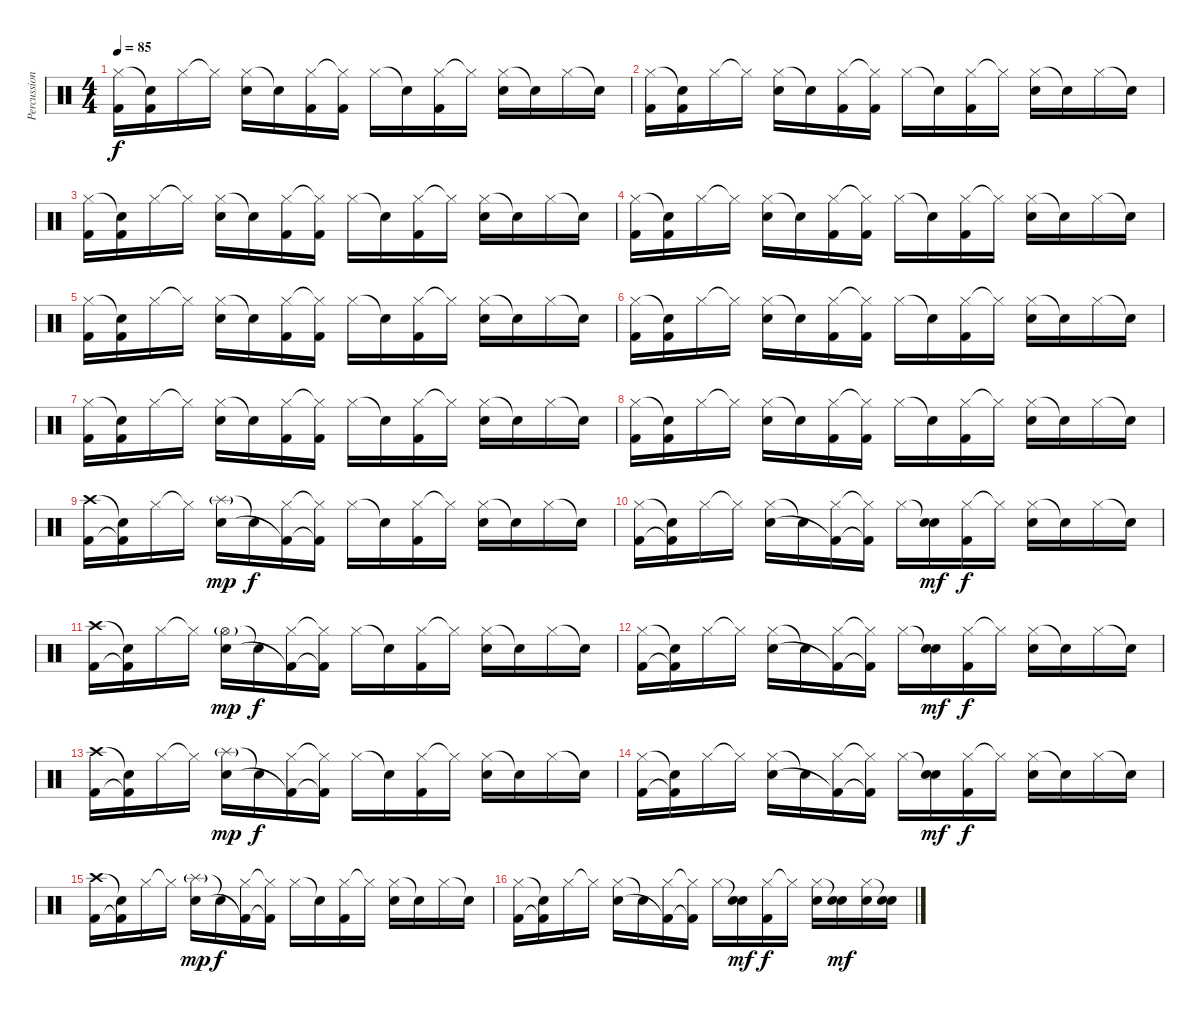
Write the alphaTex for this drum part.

\track ("Percussion" "Percussion") {instrument percussion}
\staff {score}
\articulation defaults
\ts (4 4)
\tempo 85
\clef neutral
\ks c
("Hi-Hat (closed)" "Kick (hit) 2").16{dy f} ("Snare (hit)"{t} "Kick (hit) 2").16 "Hi-Hat (closed)".16 "Hi-Hat (closed)"{t}.16 ("Hi-Hat (closed)" "Snare (hit) 2").16 "Snare (hit)"{t}.16 ("Hi-Hat (closed)" "Kick (hit) 2").16 ("Hi-Hat (closed)"{t} "Kick (hit) 2").16 "Hi-Hat (closed)".16 "Snare (hit)"{t}.16 ("Hi-Hat (closed)" "Kick (hit) 2").16 "Hi-Hat (closed)"{t}.16 ("Hi-Hat (closed)" "Snare (hit) 2").16 "Snare (hit)"{t}.16 "Hi-Hat (closed)".16 "Snare (hit)"{t}.16 |
("Hi-Hat (closed)" "Kick (hit) 2").16 ("Snare (hit)"{t} "Kick (hit) 2").16 "Hi-Hat (closed)".16 "Hi-Hat (closed)"{t}.16 ("Hi-Hat (closed)" "Snare (hit) 2").16 "Snare (hit)"{t}.16 ("Hi-Hat (closed)" "Kick (hit) 2").16 ("Hi-Hat (closed)"{t} "Kick (hit) 2").16 "Hi-Hat (closed)".16 "Snare (hit)"{t}.16 ("Hi-Hat (closed)" "Kick (hit) 2").16 "Hi-Hat (closed)"{t}.16 ("Hi-Hat (closed)" "Snare (hit) 2").16 "Snare (hit)"{t}.16 "Hi-Hat (closed)".16 "Snare (hit)"{t}.16 |
("Hi-Hat (closed)" "Kick (hit) 2").16 ("Snare (hit)"{t} "Kick (hit) 2").16 "Hi-Hat (closed)".16 "Hi-Hat (closed)"{t}.16 ("Hi-Hat (closed)" "Snare (hit) 2").16 "Snare (hit)"{t}.16 ("Hi-Hat (closed)" "Kick (hit) 2").16 ("Hi-Hat (closed)"{t} "Kick (hit) 2").16 "Hi-Hat (closed)".16 "Snare (hit)"{t}.16 ("Hi-Hat (closed)" "Kick (hit) 2").16 "Hi-Hat (closed)"{t}.16 ("Hi-Hat (closed)" "Snare (hit) 2").16 "Snare (hit)"{t}.16 "Hi-Hat (closed)".16 "Snare (hit)"{t}.16 |
("Hi-Hat (closed)" "Kick (hit) 2").16 ("Snare (hit)"{t} "Kick (hit) 2").16 "Hi-Hat (closed)".16 "Hi-Hat (closed)"{t}.16 ("Hi-Hat (closed)" "Snare (hit) 2").16 "Snare (hit)"{t}.16 ("Hi-Hat (closed)" "Kick (hit) 2").16 ("Hi-Hat (closed)"{t} "Kick (hit) 2").16 "Hi-Hat (closed)".16 "Snare (hit)"{t}.16 ("Hi-Hat (closed)" "Kick (hit) 2").16 "Hi-Hat (closed)"{t}.16 ("Hi-Hat (closed)" "Snare (hit) 2").16 "Snare (hit)"{t}.16 "Hi-Hat (closed)".16 "Snare (hit)"{t}.16 |
("Hi-Hat (closed)" "Kick (hit) 2").16 ("Snare (hit)"{t} "Kick (hit) 2").16 "Hi-Hat (closed)".16 "Hi-Hat (closed)"{t}.16 ("Hi-Hat (closed)" "Snare (hit) 2").16 "Snare (hit)"{t}.16 ("Hi-Hat (closed)" "Kick (hit) 2").16 ("Hi-Hat (closed)"{t} "Kick (hit) 2").16 "Hi-Hat (closed)".16 "Snare (hit)"{t}.16 ("Hi-Hat (closed)" "Kick (hit) 2").16 "Hi-Hat (closed)"{t}.16 ("Hi-Hat (closed)" "Snare (hit) 2").16 "Snare (hit)"{t}.16 "Hi-Hat (closed)".16 "Snare (hit)"{t}.16 |
("Hi-Hat (closed)" "Kick (hit) 2").16 ("Snare (hit)"{t} "Kick (hit) 2").16 "Hi-Hat (closed)".16 "Hi-Hat (closed)"{t}.16 ("Hi-Hat (closed)" "Snare (hit) 2").16 "Snare (hit)"{t}.16 ("Hi-Hat (closed)" "Kick (hit) 2").16 ("Hi-Hat (closed)"{t} "Kick (hit) 2").16 "Hi-Hat (closed)".16 "Snare (hit)"{t}.16 ("Hi-Hat (closed)" "Kick (hit) 2").16 "Hi-Hat (closed)"{t}.16 ("Hi-Hat (closed)" "Snare (hit) 2").16 "Snare (hit)"{t}.16 "Hi-Hat (closed)".16 "Snare (hit)"{t}.16 |
("Hi-Hat (closed)" "Kick (hit) 2").16 ("Snare (hit)"{t} "Kick (hit) 2").16 "Hi-Hat (closed)".16 "Hi-Hat (closed)"{t}.16 ("Hi-Hat (closed)" "Snare (hit) 2").16 "Snare (hit)"{t}.16 ("Hi-Hat (closed)" "Kick (hit) 2").16 ("Hi-Hat (closed)"{t} "Kick (hit) 2").16 "Hi-Hat (closed)".16 "Snare (hit)"{t}.16 ("Hi-Hat (closed)" "Kick (hit) 2").16 "Hi-Hat (closed)"{t}.16 ("Hi-Hat (closed)" "Snare (hit) 2").16 "Snare (hit)"{t}.16 "Hi-Hat (closed)".16 "Snare (hit)"{t}.16 |
("Hi-Hat (closed)" "Kick (hit) 2").16 ("Snare (hit)"{t} "Kick (hit) 2").16 "Hi-Hat (closed)".16 "Hi-Hat (closed)"{t}.16 ("Hi-Hat (closed)" "Snare (hit) 2").16 "Snare (hit)"{t}.16 ("Hi-Hat (closed)" "Kick (hit) 2").16 ("Hi-Hat (closed)"{t} "Kick (hit) 2").16 "Hi-Hat (closed)".16 "Snare (hit)"{t}.16 ("Hi-Hat (closed)" "Kick (hit) 2").16 "Hi-Hat (closed)"{t}.16 ("Hi-Hat (closed)" "Snare (hit) 2").16 "Snare (hit)"{t}.16 "Hi-Hat (closed)".16 "Snare (hit)"{t}.16 |
("Crash high (hit)" "Kick (hit) 2").16 ("Snare (hit)"{t} "Kick (hit) 2"{t}).16 "Hi-Hat (closed)".16 "Hi-Hat (closed)"{t}.16 ("Splash (hit)"{g} "Snare (hit) 2").16{dy mp} "Snare (hit)"{t}.16{dy f} ("Hi-Hat (closed)" "Kick (hit) 2"{t}).16 ("Hi-Hat (closed)"{t} "Kick (hit) 2"{t}).16 "Hi-Hat (closed)".16 "Snare (hit)"{t}.16 ("Hi-Hat (closed)" "Kick (hit) 2").16 "Hi-Hat (closed)"{t}.16 ("Hi-Hat (closed)" "Snare (hit) 2").16 "Snare (hit)"{t}.16 "Hi-Hat (closed)".16 "Snare (hit)"{t}.16 |
("Hi-Hat (closed)" "Kick (hit) 2").16 ("Snare (hit)"{t} "Kick (hit) 2"{t}).16 "Hi-Hat (closed)".16 "Hi-Hat (closed)"{t}.16 ("Hi-Hat (closed)" "Snare (hit) 2").16 "Snare (hit)"{t}.16 ("Hi-Hat (closed)" "Kick (hit) 2"{t}).16 ("Hi-Hat (closed)"{t} "Kick (hit) 2"{t}).16 "Hi-Hat (closed)".16 ("Snare (hit)"{t} "Snare (hit) 2").16{dy mf} ("Hi-Hat (closed)" "Kick (hit) 2").16{dy f} "Hi-Hat (closed)"{t}.16 ("Hi-Hat (closed)" "Snare (hit) 2").16 "Snare (hit)"{t}.16 "Hi-Hat (closed)".16 "Snare (hit)"{t}.16 |
("Crash high (hit)" "Kick (hit) 2").16 ("Snare (hit)"{t} "Kick (hit) 2"{t}).16 "Hi-Hat (closed)".16 "Hi-Hat (closed)"{t}.16 ("Hi-Hat (open)"{g} "Snare (hit) 2").16{dy mp} "Snare (hit)"{t}.16{dy f} ("Hi-Hat (closed)" "Kick (hit) 2"{t}).16 ("Hi-Hat (closed)"{t} "Kick (hit) 2"{t}).16 "Hi-Hat (closed)".16 "Snare (hit)"{t}.16 ("Hi-Hat (closed)" "Kick (hit) 2").16 "Hi-Hat (closed)"{t}.16 ("Hi-Hat (closed)" "Snare (hit) 2").16 "Snare (hit)"{t}.16 "Hi-Hat (closed)".16 "Snare (hit)"{t}.16 |
("Hi-Hat (closed)" "Kick (hit) 2").16 ("Snare (hit)"{t} "Kick (hit) 2"{t}).16 "Hi-Hat (closed)".16 "Hi-Hat (closed)"{t}.16 ("Hi-Hat (closed)" "Snare (hit) 2").16 "Snare (hit)"{t}.16 ("Hi-Hat (closed)" "Kick (hit) 2"{t}).16 ("Hi-Hat (closed)"{t} "Kick (hit) 2"{t}).16 "Hi-Hat (closed)".16 ("Snare (hit)"{t} "Snare (hit) 2").16{dy mf} ("Hi-Hat (closed)" "Kick (hit) 2").16{dy f} "Hi-Hat (closed)"{t}.16 ("Hi-Hat (closed)" "Snare (hit) 2").16 "Snare (hit)"{t}.16 "Hi-Hat (closed)".16 "Snare (hit)"{t}.16 |
("Crash high (hit)" "Kick (hit) 2").16 ("Snare (hit)"{t} "Kick (hit) 2"{t}).16 "Hi-Hat (closed)".16 "Hi-Hat (closed)"{t}.16 ("Splash (hit)"{g} "Snare (hit) 2").16{dy mp} "Snare (hit)"{t}.16{dy f} ("Hi-Hat (closed)" "Kick (hit) 2"{t}).16 ("Hi-Hat (closed)"{t} "Kick (hit) 2"{t}).16 "Hi-Hat (closed)".16 "Snare (hit)"{t}.16 ("Hi-Hat (closed)" "Kick (hit) 2").16 "Hi-Hat (closed)"{t}.16 ("Hi-Hat (closed)" "Snare (hit) 2").16 "Snare (hit)"{t}.16 "Hi-Hat (closed)".16 "Snare (hit)"{t}.16 |
("Hi-Hat (closed)" "Kick (hit) 2").16 ("Snare (hit)"{t} "Kick (hit) 2"{t}).16 "Hi-Hat (closed)".16 "Hi-Hat (closed)"{t}.16 ("Hi-Hat (closed)" "Snare (hit) 2").16 "Snare (hit)"{t}.16 ("Hi-Hat (closed)" "Kick (hit) 2"{t}).16 ("Hi-Hat (closed)"{t} "Kick (hit) 2"{t}).16 "Hi-Hat (closed)".16 ("Snare (hit)"{t} "Snare (hit) 2").16{dy mf} ("Hi-Hat (closed)" "Kick (hit) 2").16{dy f} "Hi-Hat (closed)"{t}.16 ("Hi-Hat (closed)" "Snare (hit) 2").16 "Snare (hit)"{t}.16 "Hi-Hat (closed)".16 "Snare (hit)"{t}.16 |
("Crash high (hit)" "Kick (hit) 2").16 ("Snare (hit)"{t} "Kick (hit) 2"{t}).16 "Hi-Hat (closed)".16 "Hi-Hat (closed)"{t}.16 ("Splash (hit)"{g} "Snare (hit) 2").16{dy mp} "Snare (hit)"{t}.16{dy f} ("Hi-Hat (closed)" "Kick (hit) 2"{t}).16 ("Hi-Hat (closed)"{t} "Kick (hit) 2"{t}).16 "Hi-Hat (closed)".16 "Snare (hit)"{t}.16 ("Hi-Hat (closed)" "Kick (hit) 2").16 "Hi-Hat (closed)"{t}.16 ("Hi-Hat (closed)" "Snare (hit) 2").16 "Snare (hit)"{t}.16 "Hi-Hat (closed)".16 "Snare (hit)"{t}.16 |
("Hi-Hat (closed)" "Kick (hit) 2").16 ("Snare (hit)"{t} "Kick (hit) 2"{t}).16 "Hi-Hat (closed)".16 "Hi-Hat (closed)"{t}.16 ("Hi-Hat (closed)" "Snare (hit) 2").16 "Snare (hit)"{t}.16 ("Hi-Hat (closed)" "Kick (hit) 2"{t}).16 ("Hi-Hat (closed)"{t} "Kick (hit) 2"{t}).16 "Hi-Hat (closed)".16 ("Snare (hit)"{t} "Snare (hit) 2").16{dy mf} ("Hi-Hat (closed)" "Kick (hit) 2").16{dy f} "Hi-Hat (closed)"{t}.16 ("Hi-Hat (closed)" "Snare (hit) 2").16 ("Snare (hit)"{t} "Snare (hit) 2").16{dy mf} ("Hi-Hat (closed)" "Snare (hit) 2").16 ("Snare (hit)"{t} "Snare (hit) 2").16
